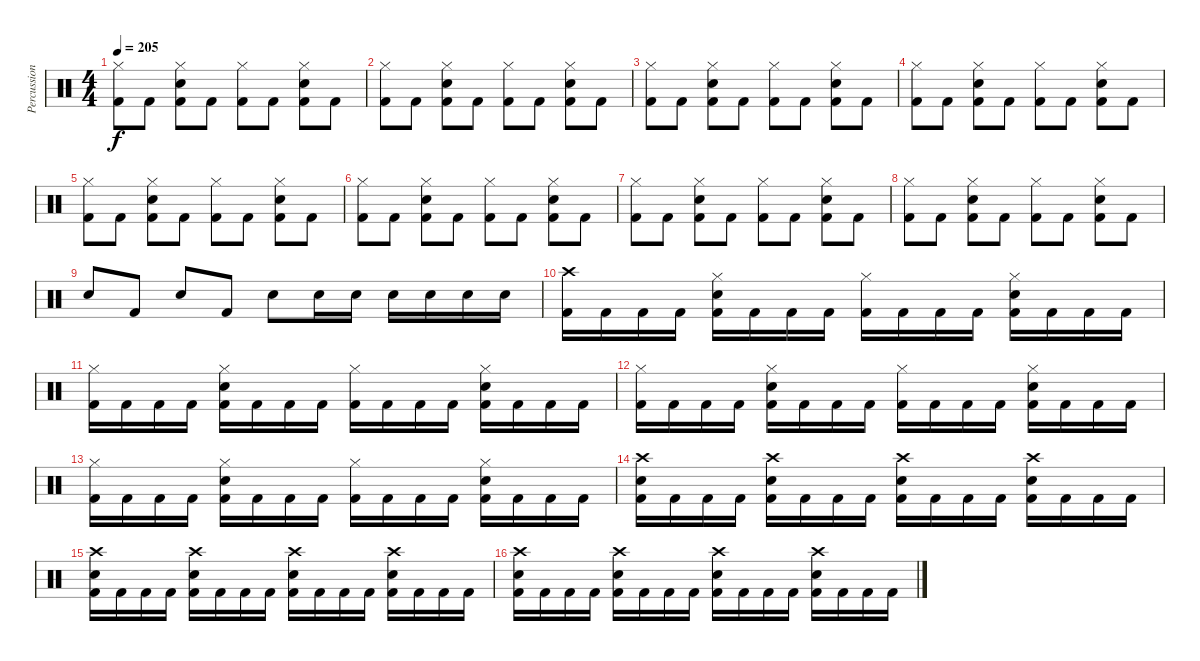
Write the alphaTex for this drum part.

\track ("Percussion" "Percussion") {instrument percussion}
\staff {score}
\articulation defaults
\ts (4 4)
\tempo 205
\clef neutral
\ks c
("Hi-Hat (closed)" "Kick (hit) 2").8{dy f} "Kick (hit) 2".8 ("Hi-Hat (closed)" "Electric Snare (hit)" "Kick (hit) 2").8 "Kick (hit) 2".8 ("Hi-Hat (closed)" "Kick (hit) 2").8 "Kick (hit) 2".8 ("Hi-Hat (closed)" "Electric Snare (hit)" "Kick (hit) 2").8 "Kick (hit) 2".8 |
("Hi-Hat (closed)" "Kick (hit) 2").8 "Kick (hit) 2".8 ("Hi-Hat (closed)" "Electric Snare (hit)" "Kick (hit) 2").8 "Kick (hit) 2".8 ("Hi-Hat (closed)" "Kick (hit) 2").8 "Kick (hit) 2".8 ("Hi-Hat (closed)" "Electric Snare (hit)" "Kick (hit) 2").8 "Kick (hit) 2".8 |
("Hi-Hat (closed)" "Kick (hit) 2").8 "Kick (hit) 2".8 ("Hi-Hat (closed)" "Electric Snare (hit)" "Kick (hit) 2").8 "Kick (hit) 2".8 ("Hi-Hat (closed)" "Kick (hit) 2").8 "Kick (hit) 2".8 ("Hi-Hat (closed)" "Electric Snare (hit)" "Kick (hit) 2").8 "Kick (hit) 2".8 |
("Hi-Hat (closed)" "Kick (hit) 2").8 "Kick (hit) 2".8 ("Hi-Hat (closed)" "Electric Snare (hit)" "Kick (hit) 2").8 "Kick (hit) 2".8 ("Hi-Hat (closed)" "Kick (hit) 2").8 "Kick (hit) 2".8 ("Hi-Hat (closed)" "Electric Snare (hit)" "Kick (hit) 2").8 "Kick (hit) 2".8 |
("Hi-Hat (closed)" "Kick (hit) 2").8 "Kick (hit) 2".8 ("Hi-Hat (closed)" "Electric Snare (hit)" "Kick (hit) 2").8 "Kick (hit) 2".8 ("Hi-Hat (closed)" "Kick (hit) 2").8 "Kick (hit) 2".8 ("Hi-Hat (closed)" "Electric Snare (hit)" "Kick (hit) 2").8 "Kick (hit) 2".8 |
("Hi-Hat (closed)" "Kick (hit) 2").8 "Kick (hit) 2".8 ("Hi-Hat (closed)" "Electric Snare (hit)" "Kick (hit) 2").8 "Kick (hit) 2".8 ("Hi-Hat (closed)" "Kick (hit) 2").8 "Kick (hit) 2".8 ("Hi-Hat (closed)" "Electric Snare (hit)" "Kick (hit) 2").8 "Kick (hit) 2".8 |
("Hi-Hat (closed)" "Kick (hit) 2").8 "Kick (hit) 2".8 ("Hi-Hat (closed)" "Electric Snare (hit)" "Kick (hit) 2").8 "Kick (hit) 2".8 ("Hi-Hat (closed)" "Kick (hit) 2").8 "Kick (hit) 2".8 ("Hi-Hat (closed)" "Electric Snare (hit)" "Kick (hit) 2").8 "Kick (hit) 2".8 |
("Hi-Hat (closed)" "Kick (hit) 2").8 "Kick (hit) 2".8 ("Hi-Hat (closed)" "Electric Snare (hit)" "Kick (hit) 2").8 "Kick (hit) 2".8 ("Hi-Hat (closed)" "Kick (hit) 2").8 "Kick (hit) 2".8 ("Hi-Hat (closed)" "Electric Snare (hit)" "Kick (hit) 2").8 "Kick (hit) 2".8 |
"Electric Snare (hit)".8 "Kick (hit) 2".8 "Electric Snare (hit)".8 "Kick (hit) 2".8 "Electric Snare (hit)".8 "Electric Snare (hit)".16 "Electric Snare (hit)".16 "Electric Snare (hit)".16 "Electric Snare (hit)".16 "Electric Snare (hit)".16 "Electric Snare (hit)".16 |
("Crash high (hit)" "Kick (hit) 2").16 "Kick (hit) 2".16 "Kick (hit) 2".16 "Kick (hit) 2".16 ("Hi-Hat (closed)" "Electric Snare (hit)" "Kick (hit) 2").16 "Kick (hit) 2".16 "Kick (hit) 2".16 "Kick (hit) 2".16 ("Hi-Hat (closed)" "Kick (hit) 2").16 "Kick (hit) 2".16 "Kick (hit) 2".16 "Kick (hit) 2".16 ("Hi-Hat (closed)" "Electric Snare (hit)" "Kick (hit) 2").16 "Kick (hit) 2".16 "Kick (hit) 2".16 "Kick (hit) 2".16 |
("Hi-Hat (closed)" "Kick (hit) 2").16 "Kick (hit) 2".16 "Kick (hit) 2".16 "Kick (hit) 2".16 ("Hi-Hat (closed)" "Electric Snare (hit)" "Kick (hit) 2").16 "Kick (hit) 2".16 "Kick (hit) 2".16 "Kick (hit) 2".16 ("Hi-Hat (closed)" "Kick (hit) 2").16 "Kick (hit) 2".16 "Kick (hit) 2".16 "Kick (hit) 2".16 ("Hi-Hat (closed)" "Electric Snare (hit)" "Kick (hit) 2").16 "Kick (hit) 2".16 "Kick (hit) 2".16 "Kick (hit) 2".16 |
("Hi-Hat (closed)" "Kick (hit) 2").16 "Kick (hit) 2".16 "Kick (hit) 2".16 "Kick (hit) 2".16 ("Hi-Hat (closed)" "Electric Snare (hit)" "Kick (hit) 2").16 "Kick (hit) 2".16 "Kick (hit) 2".16 "Kick (hit) 2".16 ("Hi-Hat (closed)" "Kick (hit) 2").16 "Kick (hit) 2".16 "Kick (hit) 2".16 "Kick (hit) 2".16 ("Hi-Hat (closed)" "Electric Snare (hit)" "Kick (hit) 2").16 "Kick (hit) 2".16 "Kick (hit) 2".16 "Kick (hit) 2".16 |
("Hi-Hat (closed)" "Kick (hit) 2").16 "Kick (hit) 2".16 "Kick (hit) 2".16 "Kick (hit) 2".16 ("Hi-Hat (closed)" "Electric Snare (hit)" "Kick (hit) 2").16 "Kick (hit) 2".16 "Kick (hit) 2".16 "Kick (hit) 2".16 ("Hi-Hat (closed)" "Kick (hit) 2").16 "Kick (hit) 2".16 "Kick (hit) 2".16 "Kick (hit) 2".16 ("Hi-Hat (closed)" "Electric Snare (hit)" "Kick (hit) 2").16 "Kick (hit) 2".16 "Kick (hit) 2".16 "Kick (hit) 2".16 |
("Crash high (hit)" "Electric Snare (hit)" "Kick (hit) 2").16 "Kick (hit) 2".16 "Kick (hit) 2".16 "Kick (hit) 2".16 ("Crash high (hit)" "Electric Snare (hit)" "Kick (hit) 2").16 "Kick (hit) 2".16 "Kick (hit) 2".16 "Kick (hit) 2".16 ("Crash high (hit)" "Electric Snare (hit)" "Kick (hit) 2").16 "Kick (hit) 2".16 "Kick (hit) 2".16 "Kick (hit) 2".16 ("Crash high (hit)" "Electric Snare (hit)" "Kick (hit) 2").16 "Kick (hit) 2".16 "Kick (hit) 2".16 "Kick (hit) 2".16 |
("Crash high (hit)" "Electric Snare (hit)" "Kick (hit) 2").16 "Kick (hit) 2".16 "Kick (hit) 2".16 "Kick (hit) 2".16 ("Crash high (hit)" "Electric Snare (hit)" "Kick (hit) 2").16 "Kick (hit) 2".16 "Kick (hit) 2".16 "Kick (hit) 2".16 ("Crash high (hit)" "Electric Snare (hit)" "Kick (hit) 2").16 "Kick (hit) 2".16 "Kick (hit) 2".16 "Kick (hit) 2".16 ("Crash high (hit)" "Electric Snare (hit)" "Kick (hit) 2").16 "Kick (hit) 2".16 "Kick (hit) 2".16 "Kick (hit) 2".16 |
("Crash high (hit)" "Electric Snare (hit)" "Kick (hit) 2").16 "Kick (hit) 2".16 "Kick (hit) 2".16 "Kick (hit) 2".16 ("Crash high (hit)" "Electric Snare (hit)" "Kick (hit) 2").16 "Kick (hit) 2".16 "Kick (hit) 2".16 "Kick (hit) 2".16 ("Crash high (hit)" "Electric Snare (hit)" "Kick (hit) 2").16 "Kick (hit) 2".16 "Kick (hit) 2".16 "Kick (hit) 2".16 ("Crash high (hit)" "Electric Snare (hit)" "Kick (hit) 2").16 "Kick (hit) 2".16 "Kick (hit) 2".16 "Kick (hit) 2".16
